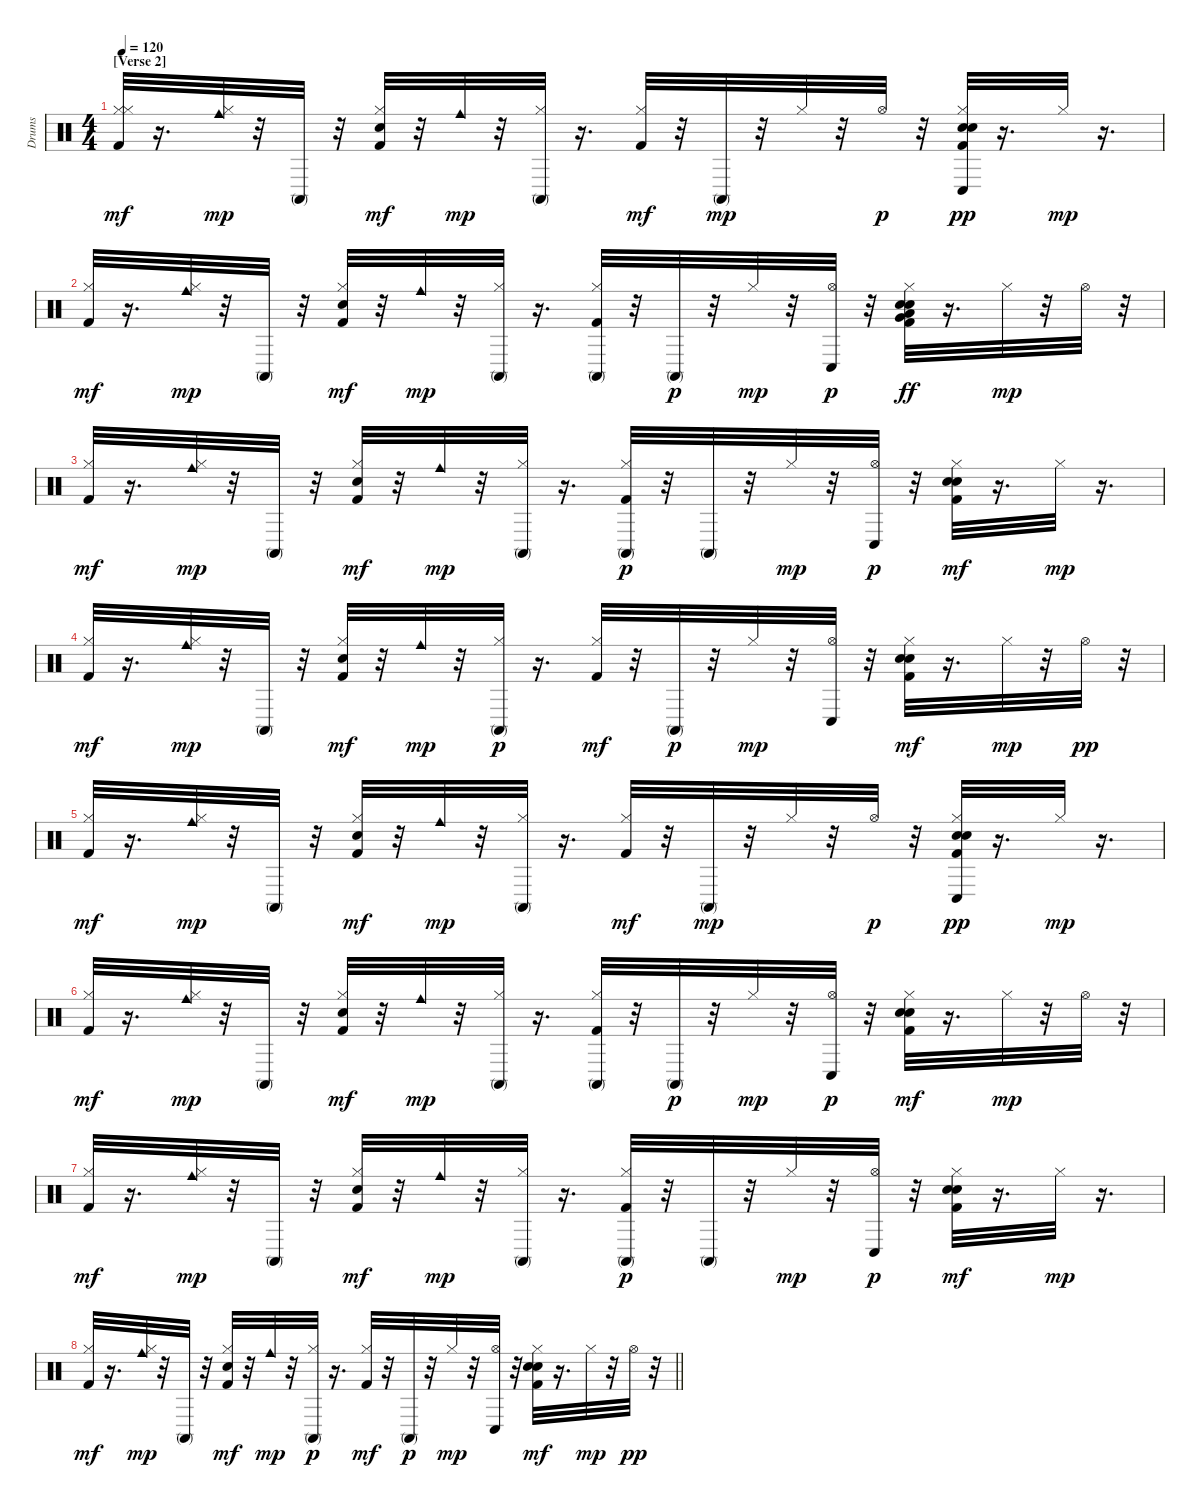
\track ("Drums" "Drums") {instrument percussion}
\staff {score}
\articulation defaults
\ts (4 4)
\section ("" "[Verse 2]")
\tempo 120
\clef neutral
\ks c
("Hi-Hat (closed)" "Hi-Hat (closed)" "Kick (hit) 2").32{dy mf} r.16{d} ("Hi-Hat (closed)" "Cowbell medium (hit)").32{dy mp} r.32 "Conga high (mute)".32 r.32 ("Hi-Hat (closed)" "Electric Snare (hit)" "Kick (hit) 2").32{dy mf} r.32 "Cowbell medium (hit)".32{dy mp} r.32 ("Hi-Hat (closed)" "Conga high (mute)").32 r.16{d} ("Hi-Hat (closed)" "Kick (hit) 2").32{dy mf} r.32 "Conga high (mute)".32{dy mp} r.32 "Hi-Hat (closed)".32 r.32 "Hi-Hat (open)".32{dy p} r.32 ("Hi-Hat (closed)" "Kick (hit) 2" "Hand Clap (hit)" "Electric Snare (hit)" "Conga low (hit)").32{dy pp} r.16{d} "Hi-Hat (closed)".32{dy mp} r.16{d} |
("Hi-Hat (closed)" "Kick (hit) 2").32{dy mf} r.16{d} ("Hi-Hat (closed)" "Cowbell medium (hit)").32{dy mp} r.32 "Conga high (mute)".32 r.32 ("Hi-Hat (closed)" "Electric Snare (hit)" "Kick (hit) 2").32{dy mf} r.32 "Cowbell medium (hit)".32{dy mp} r.32 ("Hi-Hat (closed)" "Conga high (mute)").32 r.16{d} ("Hi-Hat (closed)" "Kick (hit) 2" "Conga high (mute)").32 r.32 "Conga high (mute)".32{dy p} r.32 "Hi-Hat (closed)".32{dy mp} r.32 ("Hi-Hat (open)" "Conga low (hit)").32{dy p} r.32 ("Kick (hit) 2" "Hi-Hat (closed)" "Electric Snare (hit)" "Hand Clap (hit)" "Low Floor Tom (hit)" "Very Low Tom (hit)").32{dy ff} r.16{d} "Hi-Hat (closed)".32{dy mp} r.32 "Hi-Hat (open)".32 r.32 |
("Hi-Hat (closed)" "Kick (hit) 2").32{dy mf} r.16{d} ("Hi-Hat (closed)" "Cowbell medium (hit)").32{dy mp} r.32 "Conga high (mute)".32 r.32 ("Hi-Hat (closed)" "Electric Snare (hit)" "Kick (hit) 2").32{dy mf} r.32 "Cowbell medium (hit)".32{dy mp} r.32 ("Hi-Hat (closed)" "Conga high (mute)").32 r.16{d} ("Kick (hit) 2" "Hi-Hat (closed)" "Conga high (mute)").32{dy p} r.32 "Conga high (mute)".32 r.32 "Hi-Hat (closed)".32{dy mp} r.32 ("Hi-Hat (open)" "Conga low (hit)").32{dy p} r.32 ("Hi-Hat (closed)" "Hand Clap (hit)" "Electric Snare (hit)" "Kick (hit) 2").32{dy mf} r.16{d} "Hi-Hat (closed)".32{dy mp} r.16{d} |
("Hi-Hat (closed)" "Kick (hit) 2").32{dy mf} r.16{d} ("Hi-Hat (closed)" "Cowbell medium (hit)").32{dy mp} r.32 "Conga high (mute)".32 r.32 ("Hi-Hat (closed)" "Electric Snare (hit)" "Kick (hit) 2").32{dy mf} r.32 "Cowbell medium (hit)".32{dy mp} r.32 ("Hi-Hat (closed)" "Conga high (mute)").32{dy p} r.16{d} ("Hi-Hat (closed)" "Kick (hit) 2").32{dy mf} r.32 "Conga high (mute)".32{dy p} r.32 "Hi-Hat (closed)".32{dy mp} r.32 ("Hi-Hat (open)" "Conga low (hit)").32 r.32 ("Kick (hit) 2" "Hi-Hat (closed)" "Electric Snare (hit)" "Hand Clap (hit)").32{dy mf} r.16{d} "Hi-Hat (closed)".32{dy mp} r.32 "Hi-Hat (open)".32{dy pp} r.32 |
("Hi-Hat (closed)" "Kick (hit) 2").32{dy mf} r.16{d} ("Hi-Hat (closed)" "Cowbell medium (hit)").32{dy mp} r.32 "Conga high (mute)".32 r.32 ("Hi-Hat (closed)" "Electric Snare (hit)" "Kick (hit) 2").32{dy mf} r.32 "Cowbell medium (hit)".32{dy mp} r.32 ("Hi-Hat (closed)" "Conga high (mute)").32 r.16{d} ("Hi-Hat (closed)" "Kick (hit) 2").32{dy mf} r.32 "Conga high (mute)".32{dy mp} r.32 "Hi-Hat (closed)".32 r.32 "Hi-Hat (open)".32{dy p} r.32 ("Hi-Hat (closed)" "Kick (hit) 2" "Hand Clap (hit)" "Electric Snare (hit)" "Conga low (hit)").32{dy pp} r.16{d} "Hi-Hat (closed)".32{dy mp} r.16{d} |
("Hi-Hat (closed)" "Kick (hit) 2").32{dy mf} r.16{d} ("Hi-Hat (closed)" "Cowbell medium (hit)").32{dy mp} r.32 "Conga high (mute)".32 r.32 ("Hi-Hat (closed)" "Electric Snare (hit)" "Kick (hit) 2").32{dy mf} r.32 "Cowbell medium (hit)".32{dy mp} r.32 ("Hi-Hat (closed)" "Conga high (mute)").32 r.16{d} ("Hi-Hat (closed)" "Kick (hit) 2" "Conga high (mute)").32 r.32 "Conga high (mute)".32{dy p} r.32 "Hi-Hat (closed)".32{dy mp} r.32 ("Hi-Hat (open)" "Conga low (hit)").32{dy p} r.32 ("Kick (hit) 2" "Hi-Hat (closed)" "Electric Snare (hit)" "Hand Clap (hit)").32{dy mf} r.16{d} "Hi-Hat (closed)".32{dy mp} r.32 "Hi-Hat (open)".32 r.32 |
("Hi-Hat (closed)" "Kick (hit) 2").32{dy mf} r.16{d} ("Hi-Hat (closed)" "Cowbell medium (hit)").32{dy mp} r.32 "Conga high (mute)".32 r.32 ("Hi-Hat (closed)" "Electric Snare (hit)" "Kick (hit) 2").32{dy mf} r.32 "Cowbell medium (hit)".32{dy mp} r.32 ("Hi-Hat (closed)" "Conga high (mute)").32 r.16{d} ("Kick (hit) 2" "Hi-Hat (closed)" "Conga high (mute)").32{dy p} r.32 "Conga high (mute)".32 r.32 "Hi-Hat (closed)".32{dy mp} r.32 ("Hi-Hat (open)" "Conga low (hit)").32{dy p} r.32 ("Hi-Hat (closed)" "Hand Clap (hit)" "Electric Snare (hit)" "Kick (hit) 2").32{dy mf} r.16{d} "Hi-Hat (closed)".32{dy mp} r.16{d} |
\barLineRight lightlight
("Hi-Hat (closed)" "Kick (hit) 2").32{dy mf} r.16{d} ("Hi-Hat (closed)" "Cowbell medium (hit)").32{dy mp} r.32 "Conga high (mute)".32 r.32 ("Hi-Hat (closed)" "Electric Snare (hit)" "Kick (hit) 2").32{dy mf} r.32 "Cowbell medium (hit)".32{dy mp} r.32 ("Hi-Hat (closed)" "Conga high (mute)").32{dy p} r.16{d} ("Hi-Hat (closed)" "Kick (hit) 2").32{dy mf} r.32 "Conga high (mute)".32{dy p} r.32 "Hi-Hat (closed)".32{dy mp} r.32 ("Hi-Hat (open)" "Conga low (hit)").32 r.32 ("Kick (hit) 2" "Hi-Hat (closed)" "Electric Snare (hit)" "Hand Clap (hit)").32{dy mf} r.16{d} "Hi-Hat (closed)".32{dy mp} r.32 "Hi-Hat (open)".32{dy pp} r.32
